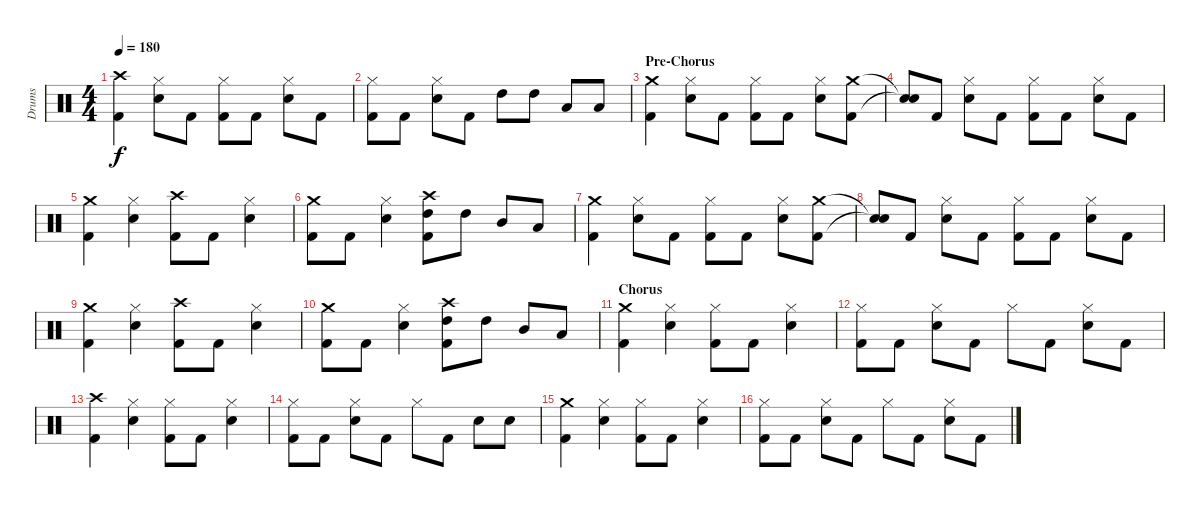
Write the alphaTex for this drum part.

\track ("Drums" "Drums") {instrument percussion}
\staff {score}
\articulation defaults
\ts (4 4)
\tempo 180
\clef neutral
\ks c
("Crash high (hit)" "Kick (hit) 2").4{dy f} ("Hi-Hat (closed)" "Electric Snare (hit)").8 "Kick (hit) 2".8 ("Hi-Hat (closed)" "Kick (hit) 2").8 "Kick (hit) 2".8 ("Hi-Hat (closed)" "Electric Snare (hit)").8 "Kick (hit) 2".8 |
("Hi-Hat (closed)" "Kick (hit) 2").8 "Kick (hit) 2".8 ("Hi-Hat (closed)" "Electric Snare (hit)").8 "Kick (hit) 2".8 "High Tom (hit)".8 "High Tom (hit)".8 "Low Tom (hit)".8 "Low Tom (hit)".8 |
\section ("" "Pre-Chorus")
("Crash medium (hit)" "Kick (hit) 2").4 ("Hi-Hat (closed)" "Electric Snare (hit)").8 "Kick (hit) 2".8 ("Hi-Hat (closed)" "Kick (hit) 2").8 "Kick (hit) 2".8 ("Hi-Hat (closed)" "Electric Snare (hit)").8 ("Crash medium (hit)" "Kick (hit) 2").8 |
("Snare (hit)"{t} "Snare (hit)"{t}).8 "Kick (hit) 2".8 ("Hi-Hat (closed)" "Electric Snare (hit)").8 "Kick (hit) 2".8 ("Hi-Hat (closed)" "Kick (hit) 2").8 "Kick (hit) 2".8 ("Hi-Hat (closed)" "Electric Snare (hit)").8 "Kick (hit) 2".8 |
("Crash medium (hit)" "Kick (hit) 2").4 ("Hi-Hat (closed)" "Electric Snare (hit)").4 ("Crash high (hit)" "Kick (hit) 2").8 "Kick (hit) 2".8 ("Hi-Hat (closed)" "Electric Snare (hit)").4 |
("Crash medium (hit)" "Kick (hit) 2").8 "Kick (hit) 2".8 ("Hi-Hat (closed)" "Electric Snare (hit)").4 ("Crash high (hit)" "High Tom (hit)" "Kick (hit) 2").8 "High Tom (hit)".8 "Mid Tom (hit)".8 "Low Tom (hit)".8 |
("Crash medium (hit)" "Kick (hit) 2").4 ("Hi-Hat (closed)" "Electric Snare (hit)").8 "Kick (hit) 2".8 ("Hi-Hat (closed)" "Kick (hit) 2").8 "Kick (hit) 2".8 ("Hi-Hat (closed)" "Electric Snare (hit)").8 ("Crash medium (hit)" "Kick (hit) 2").8 |
("Snare (hit)"{t} "Snare (hit)"{t}).8 "Kick (hit) 2".8 ("Hi-Hat (closed)" "Electric Snare (hit)").8 "Kick (hit) 2".8 ("Hi-Hat (closed)" "Kick (hit) 2").8 "Kick (hit) 2".8 ("Hi-Hat (closed)" "Electric Snare (hit)").8 "Kick (hit) 2".8 |
("Crash medium (hit)" "Kick (hit) 2").4 ("Hi-Hat (closed)" "Electric Snare (hit)").4 ("Crash high (hit)" "Kick (hit) 2").8 "Kick (hit) 2".8 ("Hi-Hat (closed)" "Electric Snare (hit)").4 |
("Crash medium (hit)" "Kick (hit) 2").8 "Kick (hit) 2".8 ("Hi-Hat (closed)" "Electric Snare (hit)").4 ("Crash high (hit)" "High Tom (hit)" "Kick (hit) 2").8 "High Tom (hit)".8 "Mid Tom (hit)".8 "Low Tom (hit)".8 |
\section ("" "Chorus")
("Crash medium (hit)" "Kick (hit) 2").4 ("Hi-Hat (closed)" "Electric Snare (hit)").4 ("Hi-Hat (closed)" "Kick (hit) 2").8 "Kick (hit) 2".8 ("Hi-Hat (closed)" "Electric Snare (hit)").4 |
("Hi-Hat (closed)" "Kick (hit) 2").8 "Kick (hit) 2".8 ("Hi-Hat (closed)" "Electric Snare (hit)").8 "Kick (hit) 2".8 "Hi-Hat (closed)".8 "Kick (hit) 2".8 ("Hi-Hat (closed)" "Electric Snare (hit)").8 "Kick (hit) 2".8 |
("Crash high (hit)" "Kick (hit) 2").4 ("Hi-Hat (closed)" "Electric Snare (hit)").4 ("Hi-Hat (closed)" "Kick (hit) 2").8 "Kick (hit) 2".8 ("Hi-Hat (closed)" "Electric Snare (hit)").4 |
("Hi-Hat (closed)" "Kick (hit) 2").8 "Kick (hit) 2".8 ("Hi-Hat (closed)" "Electric Snare (hit)").8 "Kick (hit) 2".8 "Hi-Hat (closed)".8 "Kick (hit) 2".8 "Electric Snare (hit)".8 "Electric Snare (hit)".8 |
("Crash medium (hit)" "Kick (hit) 2").4 ("Hi-Hat (closed)" "Electric Snare (hit)").4 ("Hi-Hat (closed)" "Kick (hit) 2").8 "Kick (hit) 2".8 ("Hi-Hat (closed)" "Electric Snare (hit)").4 |
("Hi-Hat (closed)" "Kick (hit) 2").8 "Kick (hit) 2".8 ("Hi-Hat (closed)" "Electric Snare (hit)").8 "Kick (hit) 2".8 "Hi-Hat (closed)".8 "Kick (hit) 2".8 ("Hi-Hat (closed)" "Electric Snare (hit)").8 "Kick (hit) 2".8
